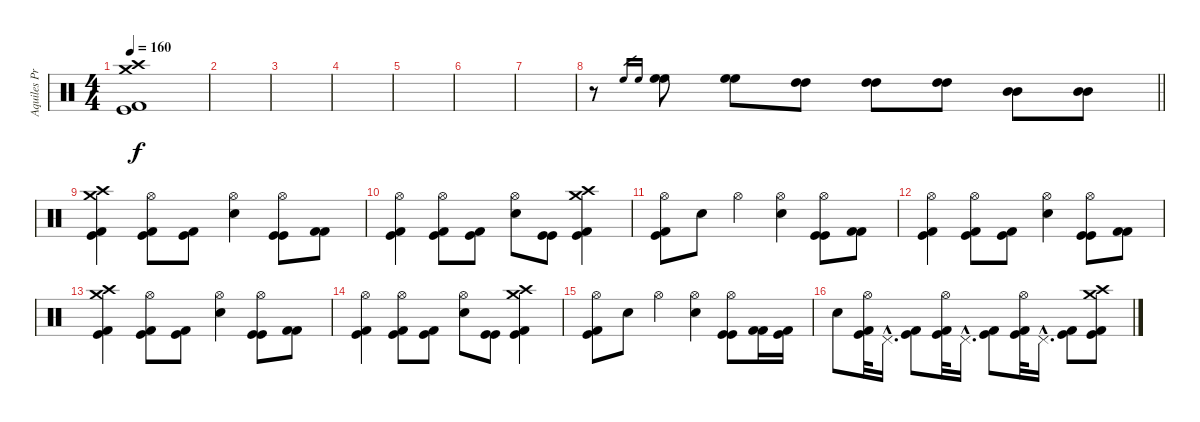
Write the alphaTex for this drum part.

\track ("Aquiles Priester" "Aquiles Pr") {instrument percussion}
\staff {score}
\articulation defaults
\ts (4 4)
\tempo 160
\clef neutral
\ks c
("Crash medium (hit)" "Crash high (hit)" "Kick (hit) 2" "Kick (hit)").1{dy f} |
|
|
|
|
|
|
\barLineRight lightlight
r.8 "High Floor Tom (hit)".16{gr} "High Floor Tom (hit)".16{gr} ("High Floor Tom (hit)" "High Floor Tom (hit)").8 ("High Floor Tom (hit)" "High Floor Tom (hit)").8 ("High Tom (hit)" "High Tom (hit)").8 ("High Tom (hit)" "High Tom (hit)").8 ("High Tom (hit)" "High Tom (hit)").8 ("Mid Tom (hit)" "Mid Tom (hit)").8 ("Mid Tom (hit)" "Mid Tom (hit)").8 |
("Crash medium (hit)" "Crash high (hit)" "Kick (hit) 2" "Kick (hit)").4 ("Hi-Hat (open)" "Kick (hit) 2" "Kick (hit)").8 ("Kick (hit) 2" "Kick (hit)").8 ("Hi-Hat (open)" "Electric Snare (hit)").4 ("Hi-Hat (open)" "Kick (hit)" "Kick (hit)").8 ("Kick (hit) 2" "Kick (hit) 2").8 |
("Hi-Hat (open)" "Kick (hit) 2" "Kick (hit)").4 ("Hi-Hat (open)" "Kick (hit) 2" "Kick (hit)").8 ("Kick (hit) 2" "Kick (hit)").8 ("Hi-Hat (open)" "Electric Snare (hit)").8 ("Kick (hit)" "Kick (hit)").8 ("Crash medium (hit)" "Crash high (hit)" "Kick (hit) 2" "Kick (hit)").4 |
("Hi-Hat (open)" "Kick (hit) 2" "Kick (hit)").8 "Electric Snare (hit)".8 "Hi-Hat (open)".4 ("Hi-Hat (open)" "Electric Snare (hit)").4 ("Hi-Hat (open)" "Kick (hit)" "Kick (hit)").8 ("Kick (hit) 2" "Kick (hit) 2").8 |
("Hi-Hat (open)" "Kick (hit) 2" "Kick (hit)").4 ("Hi-Hat (open)" "Kick (hit) 2" "Kick (hit)").8 ("Kick (hit) 2" "Kick (hit)").8 ("Hi-Hat (open)" "Electric Snare (hit)").4 ("Hi-Hat (open)" "Kick (hit)" "Kick (hit)").8 ("Kick (hit) 2" "Kick (hit) 2").8 |
("Crash medium (hit)" "Crash high (hit)" "Kick (hit) 2" "Kick (hit)").4 ("Hi-Hat (open)" "Kick (hit) 2" "Kick (hit)").8 ("Kick (hit) 2" "Kick (hit)").8 ("Hi-Hat (open)" "Electric Snare (hit)").4 ("Hi-Hat (open)" "Kick (hit)" "Kick (hit)").8 ("Kick (hit) 2" "Kick (hit) 2").8 |
("Hi-Hat (open)" "Kick (hit) 2" "Kick (hit)").4 ("Hi-Hat (open)" "Kick (hit) 2" "Kick (hit)").8 ("Kick (hit) 2" "Kick (hit)").8 ("Hi-Hat (open)" "Electric Snare (hit)").8 ("Kick (hit)" "Kick (hit)").8 ("Crash medium (hit)" "Crash high (hit)" "Kick (hit) 2" "Kick (hit)").4 |
("Hi-Hat (open)" "Kick (hit) 2" "Kick (hit)").8 "Electric Snare (hit)".8 "Hi-Hat (open)".4 ("Hi-Hat (open)" "Electric Snare (hit)").4 ("Hi-Hat (open)" "Kick (hit)" "Kick (hit)").8 ("Kick (hit) 2" "Kick (hit) 2").16 ("Kick (hit)" "Kick (hit) 2").16 |
"Electric Snare (hit)".8 ("Hi-Hat (open)" "Kick (hit)" "Kick (hit) 2").32 "Pedal Hi-Hat (hit)"{hac}.16{d} ("Kick (hit) 2" "Kick (hit)").8 ("Hi-Hat (open)" "Kick (hit)" "Kick (hit) 2").32 "Pedal Hi-Hat (hit)"{hac}.16{d} ("Kick (hit) 2" "Kick (hit)").8 ("Hi-Hat (open)" "Kick (hit)" "Kick (hit) 2").32 "Pedal Hi-Hat (hit)"{hac}.16{d} ("Kick (hit) 2" "Kick (hit)").8 ("Crash medium (hit)" "Crash high (hit)" "Kick (hit)" "Kick (hit) 2").8
